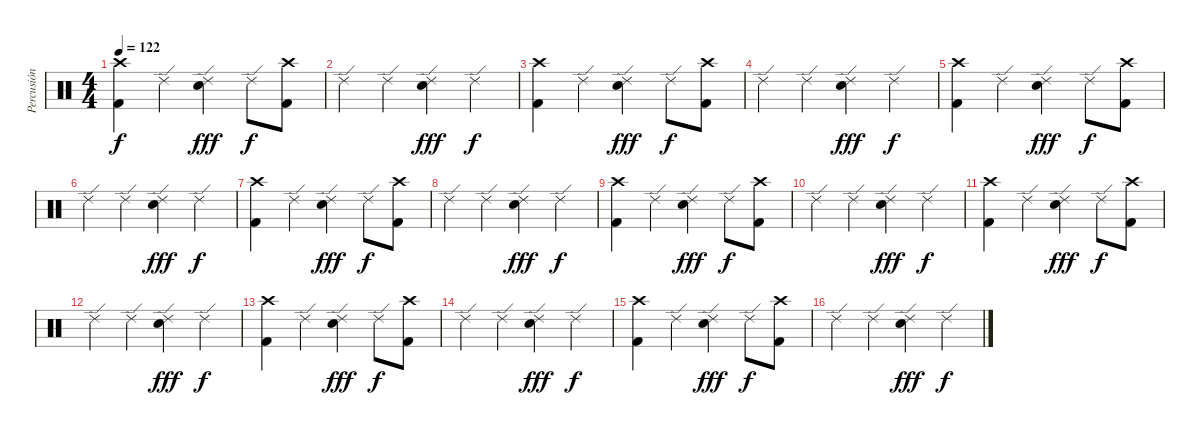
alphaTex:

\track ("Percusión" "Percusión") {instrument percussion}
\staff {score}
\articulation defaults
\ts (4 4)
\tempo 122
\clef neutral
\ks c
("Crash high (hit)" "Kick (hit) 2").4{dy f} "Ride (edge) 2".4 ("Ride (edge) 2" "Electric Snare (hit)").4{dy fff} "Ride (edge) 2".8{dy f} ("Crash high (hit)" "Kick (hit) 2").8 |
"Ride (edge) 2".4 "Ride (edge) 2".4 ("Ride (edge) 2" "Electric Snare (hit)").4{dy fff} "Ride (edge) 2".4{dy f} |
("Crash high (hit)" "Kick (hit) 2").4 "Ride (edge) 2".4 ("Ride (edge) 2" "Electric Snare (hit)").4{dy fff} "Ride (edge) 2".8{dy f} ("Crash high (hit)" "Kick (hit) 2").8 |
"Ride (edge) 2".4 "Ride (edge) 2".4 ("Ride (edge) 2" "Electric Snare (hit)").4{dy fff} "Ride (edge) 2".4{dy f} |
("Crash high (hit)" "Kick (hit) 2").4 "Ride (edge) 2".4 ("Ride (edge) 2" "Electric Snare (hit)").4{dy fff} "Ride (edge) 2".8{dy f} ("Crash high (hit)" "Kick (hit) 2").8 |
"Ride (edge) 2".4 "Ride (edge) 2".4 ("Ride (edge) 2" "Electric Snare (hit)").4{dy fff} "Ride (edge) 2".4{dy f} |
("Crash high (hit)" "Kick (hit) 2").4 "Ride (edge) 2".4 ("Ride (edge) 2" "Electric Snare (hit)").4{dy fff} "Ride (edge) 2".8{dy f} ("Crash high (hit)" "Kick (hit) 2").8 |
"Ride (edge) 2".4 "Ride (edge) 2".4 ("Ride (edge) 2" "Electric Snare (hit)").4{dy fff} "Ride (edge) 2".4{dy f} |
("Crash high (hit)" "Kick (hit) 2").4 "Ride (edge) 2".4 ("Ride (edge) 2" "Electric Snare (hit)").4{dy fff} "Ride (edge) 2".8{dy f} ("Crash high (hit)" "Kick (hit) 2").8 |
"Ride (edge) 2".4 "Ride (edge) 2".4 ("Ride (edge) 2" "Electric Snare (hit)").4{dy fff} "Ride (edge) 2".4{dy f} |
("Crash high (hit)" "Kick (hit) 2").4 "Ride (edge) 2".4 ("Ride (edge) 2" "Electric Snare (hit)").4{dy fff} "Ride (edge) 2".8{dy f} ("Crash high (hit)" "Kick (hit) 2").8 |
"Ride (edge) 2".4 "Ride (edge) 2".4 ("Ride (edge) 2" "Electric Snare (hit)").4{dy fff} "Ride (edge) 2".4{dy f} |
("Crash high (hit)" "Kick (hit) 2").4 "Ride (edge) 2".4 ("Ride (edge) 2" "Electric Snare (hit)").4{dy fff} "Ride (edge) 2".8{dy f} ("Crash high (hit)" "Kick (hit) 2").8 |
"Ride (edge) 2".4 "Ride (edge) 2".4 ("Ride (edge) 2" "Electric Snare (hit)").4{dy fff} "Ride (edge) 2".4{dy f} |
("Crash high (hit)" "Kick (hit) 2").4 "Ride (edge) 2".4 ("Ride (edge) 2" "Electric Snare (hit)").4{dy fff} "Ride (edge) 2".8{dy f} ("Crash high (hit)" "Kick (hit) 2").8 |
"Ride (edge) 2".4 "Ride (edge) 2".4 ("Ride (edge) 2" "Electric Snare (hit)").4{dy fff} "Ride (edge) 2".4{dy f}
